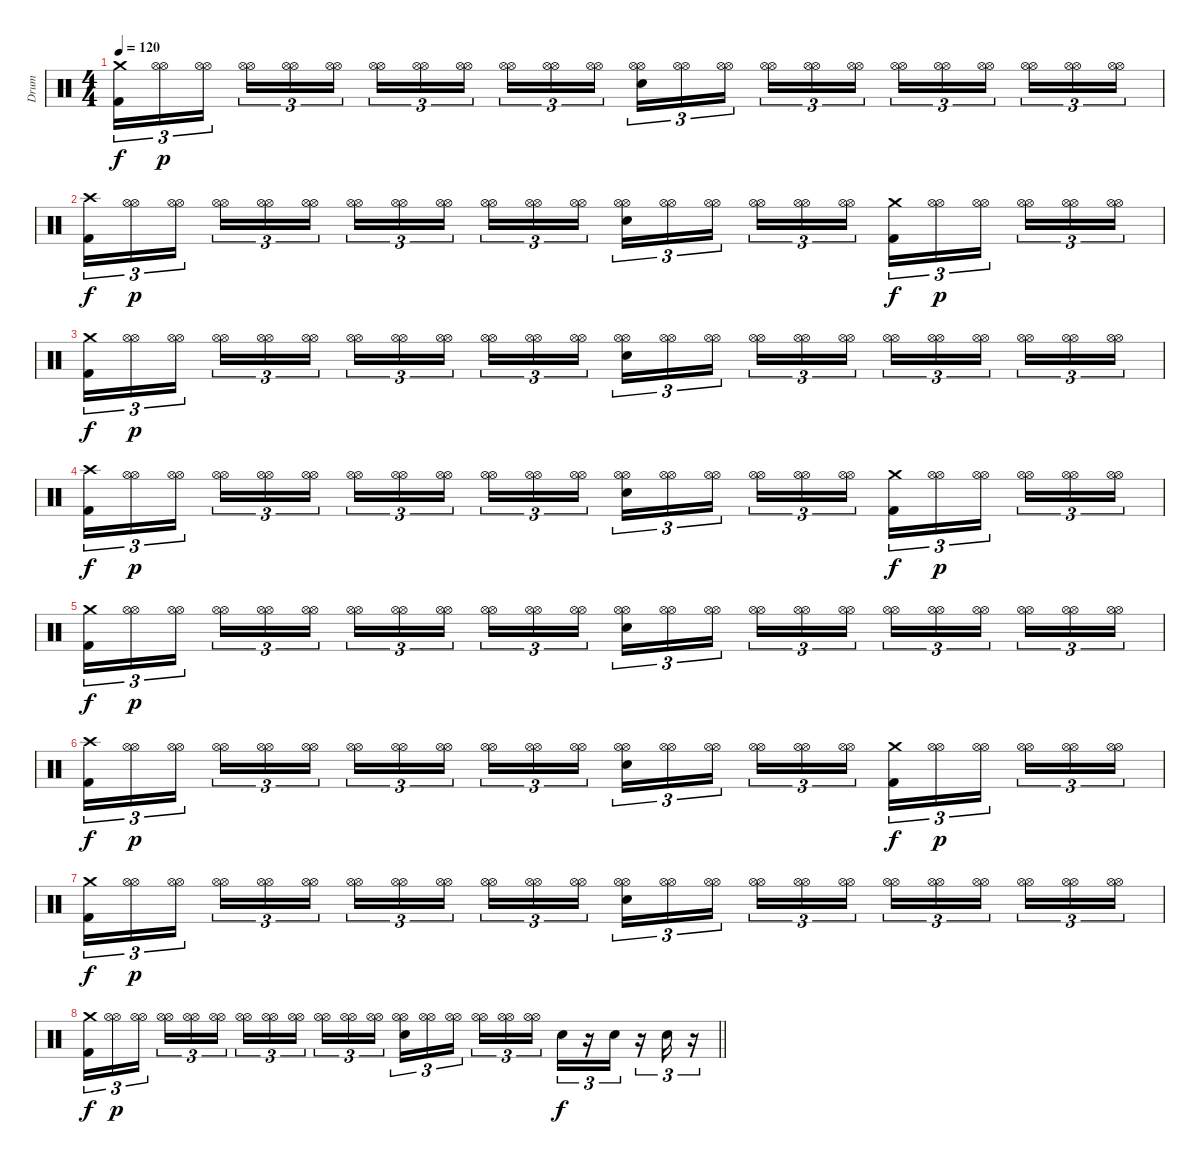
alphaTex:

\track ("Drum" "Drum") {instrument percussion}
\staff {score}
\articulation defaults
\ts (4 4)
\tempo 120
\clef neutral
\ks c
("Crash medium (hit)" "Kick (hit) 2").16{tu (3 2) dy f} ("Hi-Hat (open)" "Hi-Hat (open)").16{tu (3 2) dy p} ("Hi-Hat (open)" "Hi-Hat (open)").16{tu (3 2)} ("Hi-Hat (open)" "Hi-Hat (open)").16{tu (3 2)} ("Hi-Hat (open)" "Hi-Hat (open)").16{tu (3 2)} ("Hi-Hat (open)" "Hi-Hat (open)").16{tu (3 2)} ("Hi-Hat (open)" "Hi-Hat (open)").16{tu (3 2)} ("Hi-Hat (open)" "Hi-Hat (open)").16{tu (3 2)} ("Hi-Hat (open)" "Hi-Hat (open)").16{tu (3 2)} ("Hi-Hat (open)" "Hi-Hat (open)").16{tu (3 2)} ("Hi-Hat (open)" "Hi-Hat (open)").16{tu (3 2)} ("Hi-Hat (open)" "Hi-Hat (open)").16{tu (3 2)} ("Hi-Hat (open)" "Hi-Hat (open)" "Snare (hit) 2").16{tu (3 2)} ("Hi-Hat (open)" "Hi-Hat (open)").16{tu (3 2)} ("Hi-Hat (open)" "Hi-Hat (open)").16{tu (3 2)} ("Hi-Hat (open)" "Hi-Hat (open)").16{tu (3 2)} ("Hi-Hat (open)" "Hi-Hat (open)").16{tu (3 2)} ("Hi-Hat (open)" "Hi-Hat (open)").16{tu (3 2)} ("Hi-Hat (open)" "Hi-Hat (open)").16{tu (3 2)} ("Hi-Hat (open)" "Hi-Hat (open)").16{tu (3 2)} ("Hi-Hat (open)" "Hi-Hat (open)").16{tu (3 2)} ("Hi-Hat (open)" "Hi-Hat (open)").16{tu (3 2)} ("Hi-Hat (open)" "Hi-Hat (open)").16{tu (3 2)} ("Hi-Hat (open)" "Hi-Hat (open)").16{tu (3 2)} |
("Crash high (hit)" "Kick (hit) 2").16{tu (3 2) dy f} ("Hi-Hat (open)" "Hi-Hat (open)").16{tu (3 2) dy p} ("Hi-Hat (open)" "Hi-Hat (open)").16{tu (3 2)} ("Hi-Hat (open)" "Hi-Hat (open)").16{tu (3 2)} ("Hi-Hat (open)" "Hi-Hat (open)").16{tu (3 2)} ("Hi-Hat (open)" "Hi-Hat (open)").16{tu (3 2)} ("Hi-Hat (open)" "Hi-Hat (open)").16{tu (3 2)} ("Hi-Hat (open)" "Hi-Hat (open)").16{tu (3 2)} ("Hi-Hat (open)" "Hi-Hat (open)").16{tu (3 2)} ("Hi-Hat (open)" "Hi-Hat (open)").16{tu (3 2)} ("Hi-Hat (open)" "Hi-Hat (open)").16{tu (3 2)} ("Hi-Hat (open)" "Hi-Hat (open)").16{tu (3 2)} ("Hi-Hat (open)" "Hi-Hat (open)" "Snare (hit) 2").16{tu (3 2)} ("Hi-Hat (open)" "Hi-Hat (open)").16{tu (3 2)} ("Hi-Hat (open)" "Hi-Hat (open)").16{tu (3 2)} ("Hi-Hat (open)" "Hi-Hat (open)").16{tu (3 2)} ("Hi-Hat (open)" "Hi-Hat (open)").16{tu (3 2)} ("Hi-Hat (open)" "Hi-Hat (open)").16{tu (3 2)} ("Crash medium (hit)" "Kick (hit) 2").16{tu (3 2) dy f} ("Hi-Hat (open)" "Hi-Hat (open)").16{tu (3 2) dy p} ("Hi-Hat (open)" "Hi-Hat (open)").16{tu (3 2)} ("Hi-Hat (open)" "Hi-Hat (open)").16{tu (3 2)} ("Hi-Hat (open)" "Hi-Hat (open)").16{tu (3 2)} ("Hi-Hat (open)" "Hi-Hat (open)").16{tu (3 2)} |
("Crash medium (hit)" "Kick (hit) 2").16{tu (3 2) dy f} ("Hi-Hat (open)" "Hi-Hat (open)").16{tu (3 2) dy p} ("Hi-Hat (open)" "Hi-Hat (open)").16{tu (3 2)} ("Hi-Hat (open)" "Hi-Hat (open)").16{tu (3 2)} ("Hi-Hat (open)" "Hi-Hat (open)").16{tu (3 2)} ("Hi-Hat (open)" "Hi-Hat (open)").16{tu (3 2)} ("Hi-Hat (open)" "Hi-Hat (open)").16{tu (3 2)} ("Hi-Hat (open)" "Hi-Hat (open)").16{tu (3 2)} ("Hi-Hat (open)" "Hi-Hat (open)").16{tu (3 2)} ("Hi-Hat (open)" "Hi-Hat (open)").16{tu (3 2)} ("Hi-Hat (open)" "Hi-Hat (open)").16{tu (3 2)} ("Hi-Hat (open)" "Hi-Hat (open)").16{tu (3 2)} ("Hi-Hat (open)" "Hi-Hat (open)" "Snare (hit) 2").16{tu (3 2)} ("Hi-Hat (open)" "Hi-Hat (open)").16{tu (3 2)} ("Hi-Hat (open)" "Hi-Hat (open)").16{tu (3 2)} ("Hi-Hat (open)" "Hi-Hat (open)").16{tu (3 2)} ("Hi-Hat (open)" "Hi-Hat (open)").16{tu (3 2)} ("Hi-Hat (open)" "Hi-Hat (open)").16{tu (3 2)} ("Hi-Hat (open)" "Hi-Hat (open)").16{tu (3 2)} ("Hi-Hat (open)" "Hi-Hat (open)").16{tu (3 2)} ("Hi-Hat (open)" "Hi-Hat (open)").16{tu (3 2)} ("Hi-Hat (open)" "Hi-Hat (open)").16{tu (3 2)} ("Hi-Hat (open)" "Hi-Hat (open)").16{tu (3 2)} ("Hi-Hat (open)" "Hi-Hat (open)").16{tu (3 2)} |
("Crash high (hit)" "Kick (hit) 2").16{tu (3 2) dy f} ("Hi-Hat (open)" "Hi-Hat (open)").16{tu (3 2) dy p} ("Hi-Hat (open)" "Hi-Hat (open)").16{tu (3 2)} ("Hi-Hat (open)" "Hi-Hat (open)").16{tu (3 2)} ("Hi-Hat (open)" "Hi-Hat (open)").16{tu (3 2)} ("Hi-Hat (open)" "Hi-Hat (open)").16{tu (3 2)} ("Hi-Hat (open)" "Hi-Hat (open)").16{tu (3 2)} ("Hi-Hat (open)" "Hi-Hat (open)").16{tu (3 2)} ("Hi-Hat (open)" "Hi-Hat (open)").16{tu (3 2)} ("Hi-Hat (open)" "Hi-Hat (open)").16{tu (3 2)} ("Hi-Hat (open)" "Hi-Hat (open)").16{tu (3 2)} ("Hi-Hat (open)" "Hi-Hat (open)").16{tu (3 2)} ("Hi-Hat (open)" "Hi-Hat (open)" "Snare (hit) 2").16{tu (3 2)} ("Hi-Hat (open)" "Hi-Hat (open)").16{tu (3 2)} ("Hi-Hat (open)" "Hi-Hat (open)").16{tu (3 2)} ("Hi-Hat (open)" "Hi-Hat (open)").16{tu (3 2)} ("Hi-Hat (open)" "Hi-Hat (open)").16{tu (3 2)} ("Hi-Hat (open)" "Hi-Hat (open)").16{tu (3 2)} ("Crash medium (hit)" "Kick (hit) 2").16{tu (3 2) dy f} ("Hi-Hat (open)" "Hi-Hat (open)").16{tu (3 2) dy p} ("Hi-Hat (open)" "Hi-Hat (open)").16{tu (3 2)} ("Hi-Hat (open)" "Hi-Hat (open)").16{tu (3 2)} ("Hi-Hat (open)" "Hi-Hat (open)").16{tu (3 2)} ("Hi-Hat (open)" "Hi-Hat (open)").16{tu (3 2)} |
("Crash medium (hit)" "Kick (hit) 2").16{tu (3 2) dy f} ("Hi-Hat (open)" "Hi-Hat (open)").16{tu (3 2) dy p} ("Hi-Hat (open)" "Hi-Hat (open)").16{tu (3 2)} ("Hi-Hat (open)" "Hi-Hat (open)").16{tu (3 2)} ("Hi-Hat (open)" "Hi-Hat (open)").16{tu (3 2)} ("Hi-Hat (open)" "Hi-Hat (open)").16{tu (3 2)} ("Hi-Hat (open)" "Hi-Hat (open)").16{tu (3 2)} ("Hi-Hat (open)" "Hi-Hat (open)").16{tu (3 2)} ("Hi-Hat (open)" "Hi-Hat (open)").16{tu (3 2)} ("Hi-Hat (open)" "Hi-Hat (open)").16{tu (3 2)} ("Hi-Hat (open)" "Hi-Hat (open)").16{tu (3 2)} ("Hi-Hat (open)" "Hi-Hat (open)").16{tu (3 2)} ("Hi-Hat (open)" "Hi-Hat (open)" "Snare (hit) 2").16{tu (3 2)} ("Hi-Hat (open)" "Hi-Hat (open)").16{tu (3 2)} ("Hi-Hat (open)" "Hi-Hat (open)").16{tu (3 2)} ("Hi-Hat (open)" "Hi-Hat (open)").16{tu (3 2)} ("Hi-Hat (open)" "Hi-Hat (open)").16{tu (3 2)} ("Hi-Hat (open)" "Hi-Hat (open)").16{tu (3 2)} ("Hi-Hat (open)" "Hi-Hat (open)").16{tu (3 2)} ("Hi-Hat (open)" "Hi-Hat (open)").16{tu (3 2)} ("Hi-Hat (open)" "Hi-Hat (open)").16{tu (3 2)} ("Hi-Hat (open)" "Hi-Hat (open)").16{tu (3 2)} ("Hi-Hat (open)" "Hi-Hat (open)").16{tu (3 2)} ("Hi-Hat (open)" "Hi-Hat (open)").16{tu (3 2)} |
("Crash high (hit)" "Kick (hit) 2").16{tu (3 2) dy f} ("Hi-Hat (open)" "Hi-Hat (open)").16{tu (3 2) dy p} ("Hi-Hat (open)" "Hi-Hat (open)").16{tu (3 2)} ("Hi-Hat (open)" "Hi-Hat (open)").16{tu (3 2)} ("Hi-Hat (open)" "Hi-Hat (open)").16{tu (3 2)} ("Hi-Hat (open)" "Hi-Hat (open)").16{tu (3 2)} ("Hi-Hat (open)" "Hi-Hat (open)").16{tu (3 2)} ("Hi-Hat (open)" "Hi-Hat (open)").16{tu (3 2)} ("Hi-Hat (open)" "Hi-Hat (open)").16{tu (3 2)} ("Hi-Hat (open)" "Hi-Hat (open)").16{tu (3 2)} ("Hi-Hat (open)" "Hi-Hat (open)").16{tu (3 2)} ("Hi-Hat (open)" "Hi-Hat (open)").16{tu (3 2)} ("Hi-Hat (open)" "Hi-Hat (open)" "Snare (hit) 2").16{tu (3 2)} ("Hi-Hat (open)" "Hi-Hat (open)").16{tu (3 2)} ("Hi-Hat (open)" "Hi-Hat (open)").16{tu (3 2)} ("Hi-Hat (open)" "Hi-Hat (open)").16{tu (3 2)} ("Hi-Hat (open)" "Hi-Hat (open)").16{tu (3 2)} ("Hi-Hat (open)" "Hi-Hat (open)").16{tu (3 2)} ("Crash medium (hit)" "Kick (hit) 2").16{tu (3 2) dy f} ("Hi-Hat (open)" "Hi-Hat (open)").16{tu (3 2) dy p} ("Hi-Hat (open)" "Hi-Hat (open)").16{tu (3 2)} ("Hi-Hat (open)" "Hi-Hat (open)").16{tu (3 2)} ("Hi-Hat (open)" "Hi-Hat (open)").16{tu (3 2)} ("Hi-Hat (open)" "Hi-Hat (open)").16{tu (3 2)} |
("Crash medium (hit)" "Kick (hit) 2").16{tu (3 2) dy f} ("Hi-Hat (open)" "Hi-Hat (open)").16{tu (3 2) dy p} ("Hi-Hat (open)" "Hi-Hat (open)").16{tu (3 2)} ("Hi-Hat (open)" "Hi-Hat (open)").16{tu (3 2)} ("Hi-Hat (open)" "Hi-Hat (open)").16{tu (3 2)} ("Hi-Hat (open)" "Hi-Hat (open)").16{tu (3 2)} ("Hi-Hat (open)" "Hi-Hat (open)").16{tu (3 2)} ("Hi-Hat (open)" "Hi-Hat (open)").16{tu (3 2)} ("Hi-Hat (open)" "Hi-Hat (open)").16{tu (3 2)} ("Hi-Hat (open)" "Hi-Hat (open)").16{tu (3 2)} ("Hi-Hat (open)" "Hi-Hat (open)").16{tu (3 2)} ("Hi-Hat (open)" "Hi-Hat (open)").16{tu (3 2)} ("Hi-Hat (open)" "Hi-Hat (open)" "Snare (hit) 2").16{tu (3 2)} ("Hi-Hat (open)" "Hi-Hat (open)").16{tu (3 2)} ("Hi-Hat (open)" "Hi-Hat (open)").16{tu (3 2)} ("Hi-Hat (open)" "Hi-Hat (open)").16{tu (3 2)} ("Hi-Hat (open)" "Hi-Hat (open)").16{tu (3 2)} ("Hi-Hat (open)" "Hi-Hat (open)").16{tu (3 2)} ("Hi-Hat (open)" "Hi-Hat (open)").16{tu (3 2)} ("Hi-Hat (open)" "Hi-Hat (open)").16{tu (3 2)} ("Hi-Hat (open)" "Hi-Hat (open)").16{tu (3 2)} ("Hi-Hat (open)" "Hi-Hat (open)").16{tu (3 2)} ("Hi-Hat (open)" "Hi-Hat (open)").16{tu (3 2)} ("Hi-Hat (open)" "Hi-Hat (open)").16{tu (3 2)} |
\barLineRight lightlight
("Crash medium (hit)" "Kick (hit) 2").16{tu (3 2) dy f} ("Hi-Hat (open)" "Hi-Hat (open)").16{tu (3 2) dy p} ("Hi-Hat (open)" "Hi-Hat (open)").16{tu (3 2)} ("Hi-Hat (open)" "Hi-Hat (open)").16{tu (3 2)} ("Hi-Hat (open)" "Hi-Hat (open)").16{tu (3 2)} ("Hi-Hat (open)" "Hi-Hat (open)").16{tu (3 2)} ("Hi-Hat (open)" "Hi-Hat (open)").16{tu (3 2)} ("Hi-Hat (open)" "Hi-Hat (open)").16{tu (3 2)} ("Hi-Hat (open)" "Hi-Hat (open)").16{tu (3 2)} ("Hi-Hat (open)" "Hi-Hat (open)").16{tu (3 2)} ("Hi-Hat (open)" "Hi-Hat (open)").16{tu (3 2)} ("Hi-Hat (open)" "Hi-Hat (open)").16{tu (3 2)} ("Hi-Hat (open)" "Hi-Hat (open)" "Snare (hit) 2").16{tu (3 2)} ("Hi-Hat (open)" "Hi-Hat (open)").16{tu (3 2)} ("Hi-Hat (open)" "Hi-Hat (open)").16{tu (3 2)} ("Hi-Hat (open)" "Hi-Hat (open)").16{tu (3 2)} ("Hi-Hat (open)" "Hi-Hat (open)").16{tu (3 2)} ("Hi-Hat (open)" "Hi-Hat (open)").16{tu (3 2)} "Snare (hit) 2".16{tu (3 2) dy f} r.16{tu (3 2)} "Snare (hit) 2".16{tu (3 2)} r.16{tu (3 2)} "Snare (hit) 2".16{tu (3 2)} r.16{tu (3 2)}
